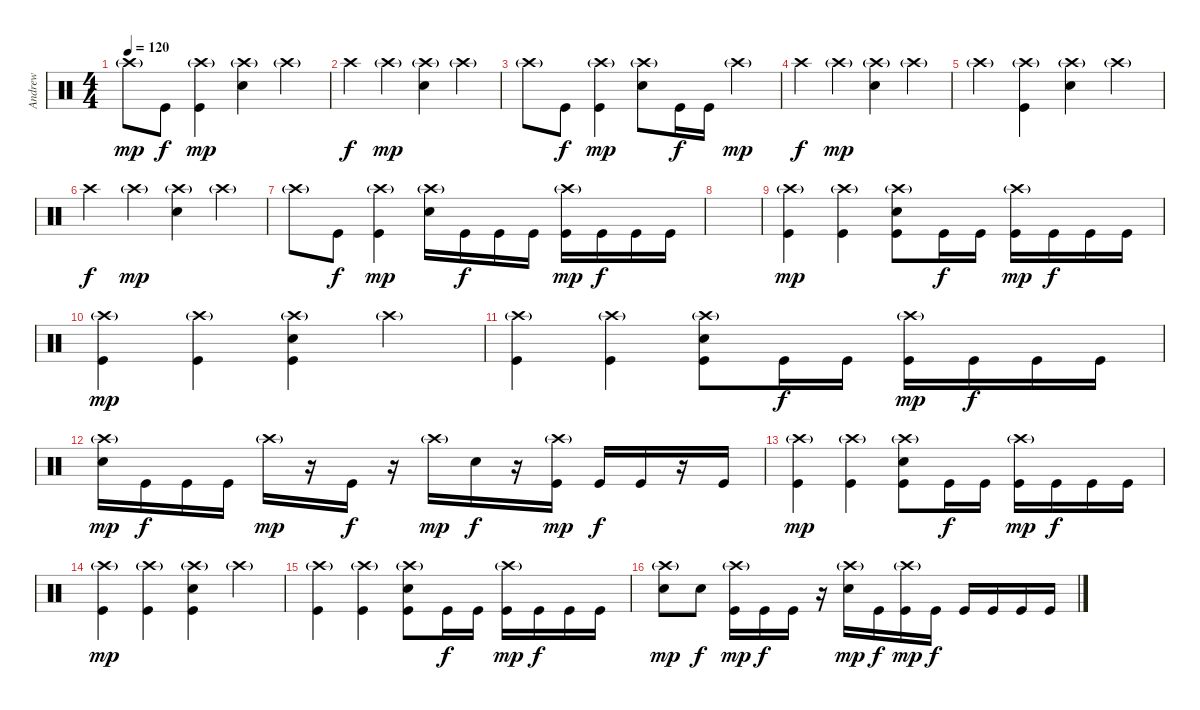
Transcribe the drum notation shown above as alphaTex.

\track ("Andrew" "Andrew") {instrument percussion}
\staff {score}
\articulation defaults
\ts (4 4)
\tempo 120
\clef neutral
\ks c "Crash high (hit)"{g}.8{dy mp} "Kick (hit)".8{dy f}
("Crash high (hit)"{g} "Kick (hit)").4{dy mp} ("Crash high (hit)"{g} "Snare (hit) 2").4 "Crash high (hit)"{g}.4 |
"Crash high (hit)".4{dy f} "Crash high (hit)"{g}.4{dy mp} ("Crash high (hit)"{g} "Snare (hit) 2").4 "Crash high (hit)"{g}.4 |
"Crash high (hit)"{g}.8 "Kick (hit)".8{dy f} ("Crash high (hit)"{g} "Kick (hit)").4{dy mp} ("Crash high (hit)"{g} "Snare (hit) 2").8 "Kick (hit)".16{dy f} "Kick (hit)".16 "Crash high (hit)"{g}.4{dy mp} |
"Crash high (hit)".4{dy f} "Crash high (hit)"{g}.4{dy mp} ("Crash high (hit)"{g} "Snare (hit) 2").4 "Crash high (hit)"{g}.4 |
"Crash high (hit)"{g}.4 ("Crash high (hit)"{g} "Kick (hit)").4 ("Crash high (hit)"{g} "Snare (hit) 2").4 "Crash high (hit)"{g}.4 |
"Crash high (hit)".4{dy f} "Crash high (hit)"{g}.4{dy mp} ("Crash high (hit)"{g} "Snare (hit) 2").4 "Crash high (hit)"{g}.4 |
"Crash high (hit)"{g}.8 "Kick (hit)".8{dy f} ("Crash high (hit)"{g} "Kick (hit)").4{dy mp} ("Crash high (hit)"{g} "Snare (hit) 2").16 "Kick (hit)".16{dy f} "Kick (hit)".16 "Kick (hit)".16 ("Crash high (hit)"{g} "Kick (hit)").16{dy mp} "Kick (hit)".16{dy f} "Kick (hit)".16 "Kick (hit)".16 |
|
("Crash high (hit)"{g} "Kick (hit)").4{dy mp} ("Crash high (hit)"{g} "Kick (hit)").4 ("Crash high (hit)"{g} "Snare (hit) 2" "Kick (hit)").8 "Kick (hit)".16{dy f} "Kick (hit)".16 ("Crash high (hit)"{g} "Kick (hit)").16{dy mp} "Kick (hit)".16{dy f} "Kick (hit)".16 "Kick (hit)".16 |
("Crash high (hit)"{g} "Kick (hit)").4{dy mp} ("Crash high (hit)"{g} "Kick (hit)").4 ("Crash high (hit)"{g} "Snare (hit) 2" "Kick (hit)").4 "Crash high (hit)"{g}.4 |
("Crash high (hit)"{g} "Kick (hit)").4 ("Crash high (hit)"{g} "Kick (hit)").4 ("Crash high (hit)"{g} "Snare (hit) 2" "Kick (hit)").8 "Kick (hit)".16{dy f} "Kick (hit)".16 ("Crash high (hit)"{g} "Kick (hit)").16{dy mp} "Kick (hit)".16{dy f} "Kick (hit)".16 "Kick (hit)".16 |
("Crash high (hit)"{g} "Snare (hit) 2").16{dy mp} "Kick (hit)".16{dy f} "Kick (hit)".16 "Kick (hit)".16 "Crash high (hit)"{g}.16{dy mp} r.16 "Kick (hit)".16{dy f} r.16 "Crash high (hit)"{g}.16{dy mp} "Snare (hit) 2".16{dy f} r.16 ("Crash high (hit)"{g} "Kick (hit)").16{dy mp} "Kick (hit)".16{dy f} "Kick (hit)".16 r.16 "Kick (hit)".16 |
("Crash high (hit)"{g} "Kick (hit)").4{dy mp} ("Crash high (hit)"{g} "Kick (hit)").4 ("Crash high (hit)"{g} "Snare (hit) 2" "Kick (hit)").8 "Kick (hit)".16{dy f} "Kick (hit)".16 ("Crash high (hit)"{g} "Kick (hit)").16{dy mp} "Kick (hit)".16{dy f} "Kick (hit)".16 "Kick (hit)".16 |
("Crash high (hit)"{g} "Kick (hit)").4{dy mp} ("Crash high (hit)"{g} "Kick (hit)").4 ("Crash high (hit)"{g} "Snare (hit) 2" "Kick (hit)").4 "Crash high (hit)"{g}.4 |
("Crash high (hit)"{g} "Kick (hit)").4 ("Crash high (hit)"{g} "Kick (hit)").4 ("Crash high (hit)"{g} "Snare (hit) 2" "Kick (hit)").8 "Kick (hit)".16{dy f} "Kick (hit)".16 ("Crash high (hit)"{g} "Kick (hit)").16{dy mp} "Kick (hit)".16{dy f} "Kick (hit)".16 "Kick (hit)".16 |
("Crash high (hit)"{g} "Snare (hit) 2").8{dy mp} "Snare (hit) 2".8{dy f} ("Crash high (hit)"{g} "Kick (hit)").16{dy mp} "Kick (hit)".16{dy f} "Kick (hit)".16 r.16 ("Crash high (hit)"{g} "Snare (hit) 2").16{dy mp} "Kick (hit)".16{dy f} ("Crash high (hit)"{g} "Kick (hit)").16{dy mp} "Kick (hit)".16{dy f} "Kick (hit)".16 "Kick (hit)".16 "Kick (hit)".16 "Kick (hit)".16
